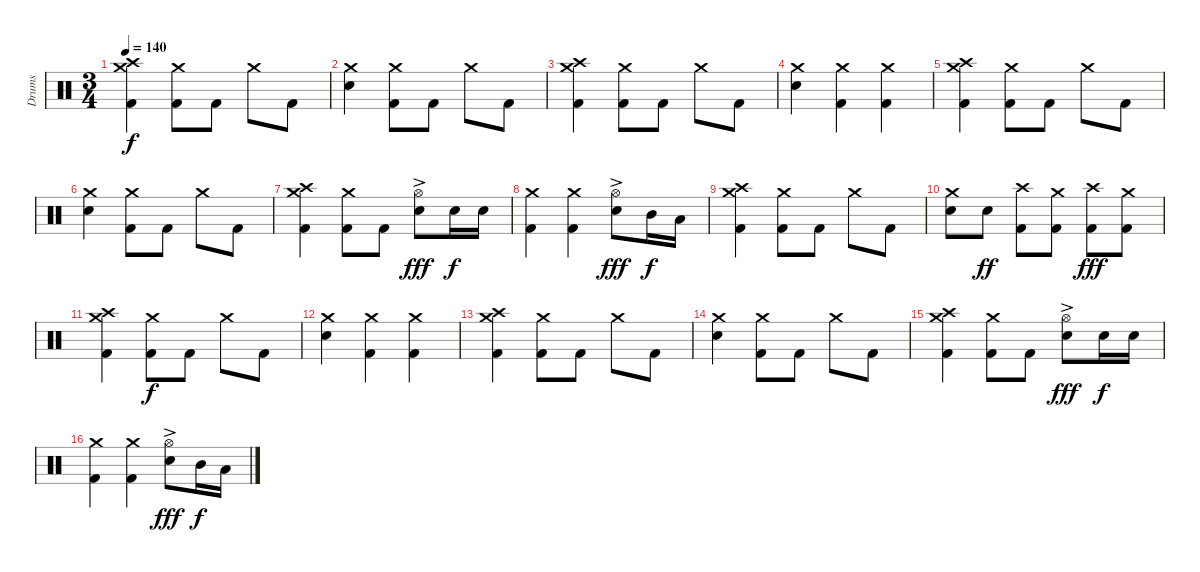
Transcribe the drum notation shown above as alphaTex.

\track ("Drums" "Drums") {instrument percussion}
\staff {score}
\articulation defaults
\ts (3 4)
\tempo 140
\clef neutral
\ks c
("Crash high (hit)" "Crash medium (hit)" "Kick (hit) 2").4{dy f} ("Crash medium (hit)" "Kick (hit) 2").8 "Kick (hit) 2".8 "Crash medium (hit)".8 "Kick (hit) 2".8 |
("Crash medium (hit)" "Snare (hit) 2").4 ("Crash medium (hit)" "Kick (hit) 2").8 "Kick (hit) 2".8 "Crash medium (hit)".8 "Kick (hit) 2".8 |
("Crash high (hit)" "Crash medium (hit)" "Kick (hit) 2").4 ("Crash medium (hit)" "Kick (hit) 2").8 "Kick (hit) 2".8 "Crash medium (hit)".8 "Kick (hit) 2".8 |
("Crash medium (hit)" "Snare (hit) 2").4 ("Crash medium (hit)" "Kick (hit) 2").4 ("Crash medium (hit)" "Kick (hit) 2").4 |
("Crash high (hit)" "Crash medium (hit)" "Kick (hit) 2").4 ("Crash medium (hit)" "Kick (hit) 2").8 "Kick (hit) 2".8 "Crash medium (hit)".8 "Kick (hit) 2".8 |
("Crash medium (hit)" "Snare (hit) 2").4 ("Crash medium (hit)" "Kick (hit) 2").8 "Kick (hit) 2".8 "Crash medium (hit)".8 "Kick (hit) 2".8 |
("Crash high (hit)" "Crash medium (hit)" "Kick (hit) 2").4 ("Crash medium (hit)" "Kick (hit) 2").8 "Kick (hit) 2".8 ("Hi-Hat (open)"{ac} "Snare (hit) 2"{ac}).8{dy fff} "Snare (hit) 2".16{dy f} "Snare (hit) 2".16 |
("Crash medium (hit)" "Kick (hit) 2").4 ("Crash medium (hit)" "Kick (hit) 2").4 ("Hi-Hat (open)"{ac} "Snare (hit) 2"{ac}).8{dy fff} "Mid Tom (hit)".16{dy f} "Low Tom (hit)".16 |
("Crash high (hit)" "Crash medium (hit)" "Kick (hit) 2").4 ("Crash medium (hit)" "Kick (hit) 2").8 "Kick (hit) 2".8 "Crash medium (hit)".8 "Kick (hit) 2".8 |
("Crash medium (hit)" "Snare (hit) 2").8 "Snare (hit) 2".8{dy ff} ("Crash high (hit)" "Kick (hit) 2").8 ("Crash medium (hit)" "Kick (hit) 2").8 ("Crash high (hit)" "Kick (hit) 2").8{dy fff} ("Crash medium (hit)" "Kick (hit) 2").8 |
("Crash high (hit)" "Crash medium (hit)" "Kick (hit) 2").4 ("Crash medium (hit)" "Kick (hit) 2").8{dy f} "Kick (hit) 2".8 "Crash medium (hit)".8 "Kick (hit) 2".8 |
("Crash medium (hit)" "Snare (hit) 2").4 ("Crash medium (hit)" "Kick (hit) 2").4 ("Crash medium (hit)" "Kick (hit) 2").4 |
("Crash high (hit)" "Crash medium (hit)" "Kick (hit) 2").4 ("Crash medium (hit)" "Kick (hit) 2").8 "Kick (hit) 2".8 "Crash medium (hit)".8 "Kick (hit) 2".8 |
("Crash medium (hit)" "Snare (hit) 2").4 ("Crash medium (hit)" "Kick (hit) 2").8 "Kick (hit) 2".8 "Crash medium (hit)".8 "Kick (hit) 2".8 |
("Crash high (hit)" "Crash medium (hit)" "Kick (hit) 2").4 ("Crash medium (hit)" "Kick (hit) 2").8 "Kick (hit) 2".8 ("Hi-Hat (open)"{ac} "Snare (hit) 2"{ac}).8{dy fff} "Snare (hit) 2".16{dy f} "Snare (hit) 2".16 |
("Crash medium (hit)" "Kick (hit) 2").4 ("Crash medium (hit)" "Kick (hit) 2").4 ("Hi-Hat (open)"{ac} "Snare (hit) 2"{ac}).8{dy fff} "Mid Tom (hit)".16{dy f} "Low Tom (hit)".16
